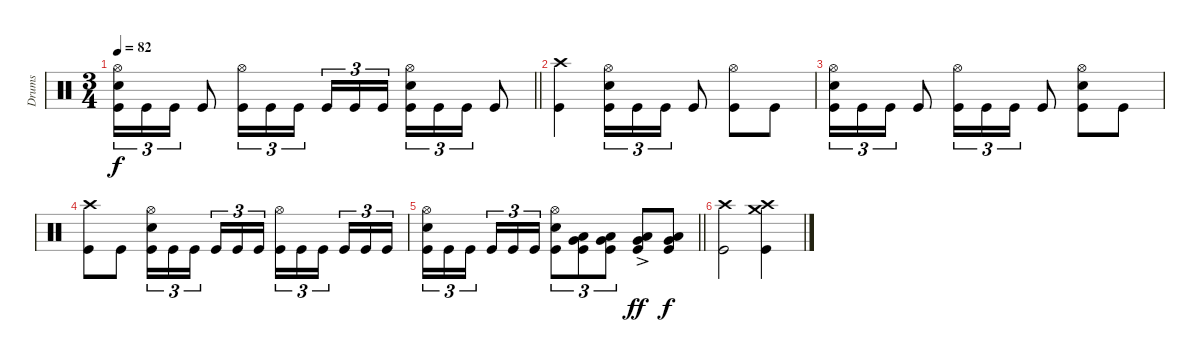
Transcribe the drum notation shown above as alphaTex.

\track ("Drums" "Drums") {instrument percussion}
\staff
\articulation defaults
\ts (3 4)
\tempo 82
\clef neutral
\barLineRight lightlight
\ks c
("Hi-Hat (open)" "Electric Snare (hit)" "Kick (hit)").16{tu (3 2) dy f} "Kick (hit)".16{tu (3 2)} "Kick (hit)".16{tu (3 2)} "Kick (hit)".8 ("Hi-Hat (open)" "Kick (hit)").16{tu (3 2)} "Kick (hit)".16{tu (3 2)} "Kick (hit)".16{tu (3 2) beam splitsecondary} "Kick (hit)".16{tu (3 2)} "Kick (hit)".16{tu (3 2)} "Kick (hit)".16{tu (3 2)} ("Hi-Hat (open)" "Electric Snare (hit)" "Kick (hit)").16{tu (3 2)} "Kick (hit)".16{tu (3 2)} "Kick (hit)".16{tu (3 2)} "Kick (hit)".8 |
("Crash high (hit)" "Kick (hit)").4 ("Hi-Hat (open)" "Electric Snare (hit)" "Kick (hit)").16{tu (3 2)} "Kick (hit)".16{tu (3 2)} "Kick (hit)".16{tu (3 2)} "Kick (hit)".8 ("Hi-Hat (open)" "Kick (hit)").8 "Kick (hit)".8 |
("Hi-Hat (open)" "Electric Snare (hit)" "Kick (hit)").16{tu (3 2)} "Kick (hit)".16{tu (3 2)} "Kick (hit)".16{tu (3 2)} "Kick (hit)".8 ("Hi-Hat (open)" "Kick (hit)").16{tu (3 2)} "Kick (hit)".16{tu (3 2)} "Kick (hit)".16{tu (3 2)} "Kick (hit)".8 ("Hi-Hat (open)" "Electric Snare (hit)" "Kick (hit)").8 "Kick (hit)".8 |
("Crash high (hit)" "Kick (hit)").8 "Kick (hit)".8 ("Hi-Hat (open)" "Electric Snare (hit)" "Kick (hit)").16{tu (3 2)} "Kick (hit)".16{tu (3 2)} "Kick (hit)".16{tu (3 2) beam splitsecondary} "Kick (hit)".16{tu (3 2)} "Kick (hit)".16{tu (3 2)} "Kick (hit)".16{tu (3 2)} ("Hi-Hat (open)" "Kick (hit)").16{tu (3 2)} "Kick (hit)".16{tu (3 2)} "Kick (hit)".16{tu (3 2) beam splitsecondary} "Kick (hit)".16{tu (3 2)} "Kick (hit)".16{tu (3 2)} "Kick (hit)".16{tu (3 2)} |
\barLineRight lightlight
("Hi-Hat (open)" "Electric Snare (hit)" "Kick (hit)").16{tu (3 2)} "Kick (hit)".16{tu (3 2)} "Kick (hit)".16{tu (3 2) beam splitsecondary} "Kick (hit)".16{tu (3 2)} "Kick (hit)".16{tu (3 2)} "Kick (hit)".16{tu (3 2)} ("Hi-Hat (open)" "Electric Snare (hit)" "Kick (hit)").8{tu (3 2)} ("Very Low Tom (hit)" "Low Floor Tom (hit)" "Kick (hit)").8{tu (3 2)} ("Very Low Tom (hit)" "Low Floor Tom (hit)" "Kick (hit)").8{tu (3 2)} ("Very Low Tom (hit)"{ac} "Low Floor Tom (hit)"{ac} "Kick (hit)").8{dy ff} ("Very Low Tom (hit)" "Low Floor Tom (hit)" "Kick (hit)").8{dy f} |
("Crash high (hit)" "Kick (hit)").2 ("Crash high (hit)" "Crash medium (hit)" "Kick (hit)").4
